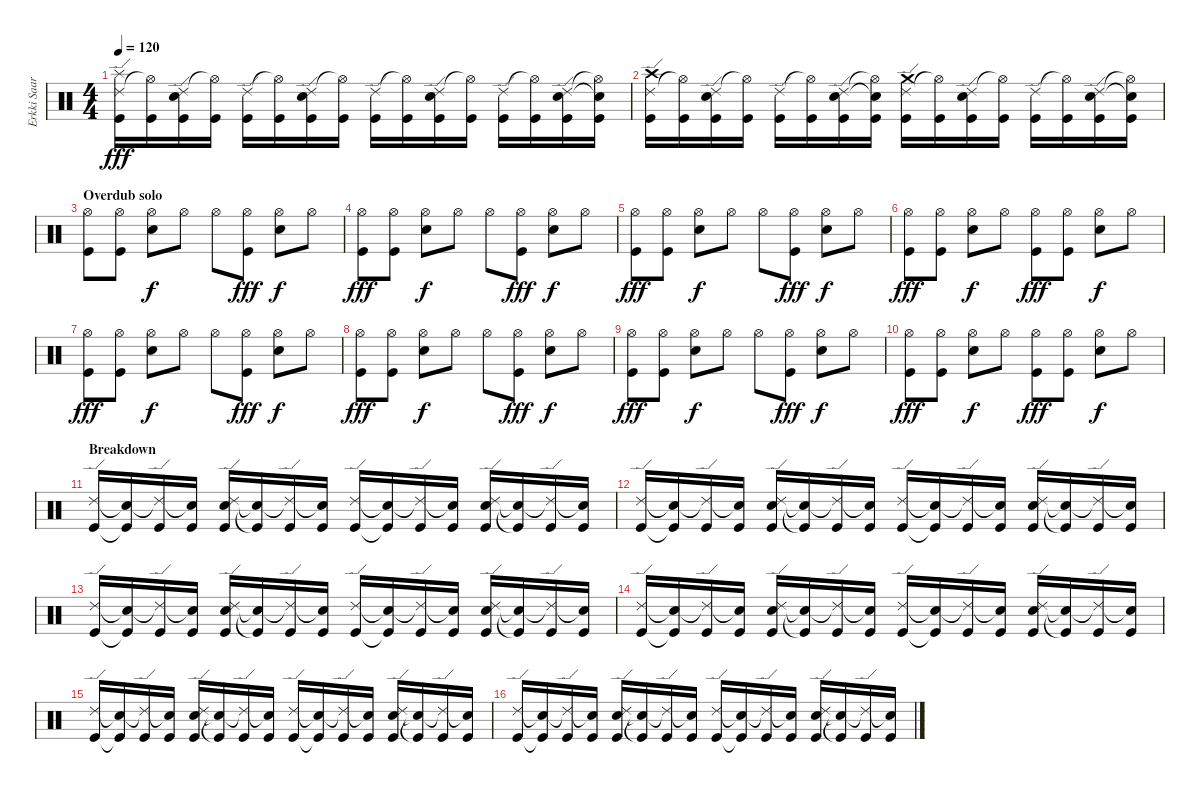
\track ("Erkki Saarinen" "Erkki Saar") {instrument percussion}
\staff {score}
\articulation defaults
\ts (4 4)
\tempo 120
\clef neutral
\ks c
("Ride (edge) 2" "Splash (hit)" "Kick (hit)").16{dy fff} ("Hi-Hat (open)"{t} "Kick (hit)").16 ("Ride (edge) 2" "Snare (hit) 2" "Kick (hit)").16 ("Hi-Hat (open)"{t} "Kick (hit)").16 ("Ride (edge) 2" "Kick (hit)").16 ("Hi-Hat (open)"{t} "Kick (hit)").16 ("Ride (edge) 2" "Snare (hit) 2" "Kick (hit)").16 ("Hi-Hat (open)"{t} "Kick (hit)").16 ("Ride (edge) 2" "Kick (hit)").16 ("Hi-Hat (open)"{t} "Kick (hit)").16 ("Ride (edge) 2" "Snare (hit) 2" "Kick (hit)").16 ("Hi-Hat (open)"{t} "Kick (hit)").16 ("Ride (edge) 2" "Kick (hit)").16 ("Hi-Hat (open)"{t} "Kick (hit)").16 ("Ride (edge) 2" "Snare (hit) 2" "Kick (hit)").16 ("Hi-Hat (open)"{t} "Snare (hit)"{t} "Kick (hit)").16 |
("Ride (edge) 2" "Crash high (hit)" "Kick (hit)").16 ("Hi-Hat (open)"{t} "Kick (hit)").16 ("Ride (edge) 2" "Snare (hit) 2" "Kick (hit)").16 ("Hi-Hat (open)"{t} "Kick (hit)").16 ("Ride (edge) 2" "Kick (hit)").16 ("Hi-Hat (open)"{t} "Kick (hit)").16 ("Ride (edge) 2" "Snare (hit) 2" "Kick (hit)").16 ("Hi-Hat (open)"{t} "Snare (hit)"{t} "Kick (hit)").16 ("Ride (edge) 2" "Crash medium (hit)" "Kick (hit)").16 ("Hi-Hat (open)"{t} "Kick (hit)").16 ("Ride (edge) 2" "Snare (hit) 2" "Kick (hit)").16 ("Hi-Hat (open)"{t} "Kick (hit)").16 ("Ride (edge) 2" "Kick (hit)").16 ("Hi-Hat (open)"{t} "Kick (hit)").16 ("Ride (edge) 2" "Snare (hit) 2" "Kick (hit)").16 ("Hi-Hat (open)"{t} "Snare (hit)"{t} "Kick (hit)").16 |
\section ("" "Overdub solo")
("Hi-Hat (open)" "Kick (hit)").8 ("Hi-Hat (open)" "Kick (hit)").8 ("Hi-Hat (open)" "Snare (hit) 2").8{dy f} "Hi-Hat (open)".8 "Hi-Hat (open)".8 ("Hi-Hat (open)" "Kick (hit)").8{dy fff} ("Hi-Hat (open)" "Snare (hit) 2").8{dy f} "Hi-Hat (open)".8 |
("Hi-Hat (open)" "Kick (hit)").8{dy fff} ("Hi-Hat (open)" "Kick (hit)").8 ("Hi-Hat (open)" "Snare (hit) 2").8{dy f} "Hi-Hat (open)".8 "Hi-Hat (open)".8 ("Hi-Hat (open)" "Kick (hit)").8{dy fff} ("Hi-Hat (open)" "Snare (hit) 2").8{dy f} "Hi-Hat (open)".8 |
("Hi-Hat (open)" "Kick (hit)").8{dy fff} ("Hi-Hat (open)" "Kick (hit)").8 ("Hi-Hat (open)" "Snare (hit) 2").8{dy f} "Hi-Hat (open)".8 "Hi-Hat (open)".8 ("Hi-Hat (open)" "Kick (hit)").8{dy fff} ("Hi-Hat (open)" "Snare (hit) 2").8{dy f} "Hi-Hat (open)".8 |
("Hi-Hat (open)" "Kick (hit)").8{dy fff} ("Hi-Hat (open)" "Kick (hit)").8 ("Hi-Hat (open)" "Snare (hit) 2").8{dy f} "Hi-Hat (open)".8 ("Hi-Hat (open)" "Kick (hit)").8{dy fff} ("Hi-Hat (open)" "Kick (hit)").8 ("Hi-Hat (open)" "Snare (hit) 2").8{dy f} "Hi-Hat (open)".8 |
("Hi-Hat (open)" "Kick (hit)").8{dy fff} ("Hi-Hat (open)" "Kick (hit)").8 ("Hi-Hat (open)" "Snare (hit) 2").8{dy f} "Hi-Hat (open)".8 "Hi-Hat (open)".8 ("Hi-Hat (open)" "Kick (hit)").8{dy fff} ("Hi-Hat (open)" "Snare (hit) 2").8{dy f} "Hi-Hat (open)".8 |
("Hi-Hat (open)" "Kick (hit)").8{dy fff} ("Hi-Hat (open)" "Kick (hit)").8 ("Hi-Hat (open)" "Snare (hit) 2").8{dy f} "Hi-Hat (open)".8 "Hi-Hat (open)".8 ("Hi-Hat (open)" "Kick (hit)").8{dy fff} ("Hi-Hat (open)" "Snare (hit) 2").8{dy f} "Hi-Hat (open)".8 |
("Hi-Hat (open)" "Kick (hit)").8{dy fff} ("Hi-Hat (open)" "Kick (hit)").8 ("Hi-Hat (open)" "Snare (hit) 2").8{dy f} "Hi-Hat (open)".8 "Hi-Hat (open)".8 ("Hi-Hat (open)" "Kick (hit)").8{dy fff} ("Hi-Hat (open)" "Snare (hit) 2").8{dy f} "Hi-Hat (open)".8 |
("Hi-Hat (open)" "Kick (hit)").8{dy fff} ("Hi-Hat (open)" "Kick (hit)").8 ("Hi-Hat (open)" "Snare (hit) 2").8{dy f} "Hi-Hat (open)".8 ("Hi-Hat (open)" "Kick (hit)").8{dy fff} ("Hi-Hat (open)" "Kick (hit)").8 ("Hi-Hat (open)" "Snare (hit) 2").8{dy f} "Hi-Hat (open)".8 |
\section ("" "Breakdown")
("Ride (edge) 2" "Kick (hit)").16 ("Snare (hit)"{t} "Kick (hit)"{t}).16 ("Ride (edge) 2"{t} "Kick (hit)").16 ("Snare (hit)"{t} "Kick (hit)").16 ("Ride (edge) 2" "Snare (hit) 2" "Kick (hit)").16 ("Snare (hit)"{t} "Kick (hit)"{t}).16 ("Ride (edge) 2"{t} "Kick (hit)").16 ("Snare (hit)"{t} "Kick (hit)").16 ("Ride (edge) 2" "Kick (hit)").16 ("Snare (hit)"{t} "Kick (hit)"{t}).16 ("Ride (edge) 2"{t} "Kick (hit)").16 ("Snare (hit)"{t} "Kick (hit)").16 ("Ride (edge) 2" "Snare (hit) 2" "Kick (hit)").16 ("Snare (hit)"{t} "Kick (hit)"{t}).16 ("Ride (edge) 2"{t} "Kick (hit)").16 ("Snare (hit)"{t} "Kick (hit)").16 |
("Ride (edge) 2" "Kick (hit)").16 ("Snare (hit)"{t} "Kick (hit)"{t}).16 ("Ride (edge) 2"{t} "Kick (hit)").16 ("Snare (hit)"{t} "Kick (hit)").16 ("Ride (edge) 2" "Snare (hit) 2" "Kick (hit)").16 ("Snare (hit)"{t} "Kick (hit)"{t}).16 ("Ride (edge) 2"{t} "Kick (hit)").16 ("Snare (hit)"{t} "Kick (hit)").16 ("Ride (edge) 2" "Kick (hit)").16 ("Snare (hit)"{t} "Kick (hit)"{t}).16 ("Ride (edge) 2"{t} "Kick (hit)").16 ("Snare (hit)"{t} "Kick (hit)").16 ("Ride (edge) 2" "Snare (hit) 2" "Kick (hit)").16 ("Snare (hit)"{t} "Kick (hit)"{t}).16 ("Ride (edge) 2"{t} "Kick (hit)").16 ("Snare (hit)"{t} "Kick (hit)").16 |
("Ride (edge) 2" "Kick (hit)").16 ("Snare (hit)"{t} "Kick (hit)"{t}).16 ("Ride (edge) 2"{t} "Kick (hit)").16 ("Snare (hit)"{t} "Kick (hit)").16 ("Ride (edge) 2" "Snare (hit) 2" "Kick (hit)").16 ("Snare (hit)"{t} "Kick (hit)"{t}).16 ("Ride (edge) 2"{t} "Kick (hit)").16 ("Snare (hit)"{t} "Kick (hit)").16 ("Ride (edge) 2" "Kick (hit)").16 ("Snare (hit)"{t} "Kick (hit)"{t}).16 ("Ride (edge) 2"{t} "Kick (hit)").16 ("Snare (hit)"{t} "Kick (hit)").16 ("Ride (edge) 2" "Snare (hit) 2" "Kick (hit)").16 ("Snare (hit)"{t} "Kick (hit)"{t}).16 ("Ride (edge) 2"{t} "Kick (hit)").16 ("Snare (hit)"{t} "Kick (hit)").16 |
("Ride (edge) 2" "Kick (hit)").16 ("Snare (hit)"{t} "Kick (hit)"{t}).16 ("Ride (edge) 2"{t} "Kick (hit)").16 ("Snare (hit)"{t} "Kick (hit)").16 ("Ride (edge) 2" "Snare (hit) 2" "Kick (hit)").16 ("Snare (hit)"{t} "Kick (hit)"{t}).16 ("Ride (edge) 2"{t} "Kick (hit)").16 ("Snare (hit)"{t} "Kick (hit)").16 ("Ride (edge) 2" "Kick (hit)").16 ("Snare (hit)"{t} "Kick (hit)"{t}).16 ("Ride (edge) 2"{t} "Kick (hit)").16 ("Snare (hit)"{t} "Kick (hit)").16 ("Ride (edge) 2" "Snare (hit) 2" "Kick (hit)").16 ("Snare (hit)"{t} "Kick (hit)"{t}).16 ("Ride (edge) 2"{t} "Kick (hit)").16 ("Snare (hit)"{t} "Kick (hit)").16 |
("Ride (edge) 2" "Kick (hit)").16 ("Snare (hit)"{t} "Kick (hit)"{t}).16 ("Ride (edge) 2"{t} "Kick (hit)").16 ("Snare (hit)"{t} "Kick (hit)").16 ("Ride (edge) 2" "Snare (hit) 2" "Kick (hit)").16 ("Snare (hit)"{t} "Kick (hit)"{t}).16 ("Ride (edge) 2"{t} "Kick (hit)").16 ("Snare (hit)"{t} "Kick (hit)").16 ("Ride (edge) 2" "Kick (hit)").16 ("Snare (hit)"{t} "Kick (hit)"{t}).16 ("Ride (edge) 2"{t} "Kick (hit)").16 ("Snare (hit)"{t} "Kick (hit)").16 ("Ride (edge) 2" "Snare (hit) 2" "Kick (hit)").16 ("Snare (hit)"{t} "Kick (hit)"{t}).16 ("Ride (edge) 2"{t} "Kick (hit)").16 ("Snare (hit)"{t} "Kick (hit)").16 |
("Ride (edge) 2" "Kick (hit)").16 ("Snare (hit)"{t} "Kick (hit)"{t}).16 ("Ride (edge) 2"{t} "Kick (hit)").16 ("Snare (hit)"{t} "Kick (hit)").16 ("Ride (edge) 2" "Snare (hit) 2" "Kick (hit)").16 ("Snare (hit)"{t} "Kick (hit)"{t}).16 ("Ride (edge) 2"{t} "Kick (hit)").16 ("Snare (hit)"{t} "Kick (hit)").16 ("Ride (edge) 2" "Kick (hit)").16 ("Snare (hit)"{t} "Kick (hit)"{t}).16 ("Ride (edge) 2"{t} "Kick (hit)").16 ("Snare (hit)"{t} "Kick (hit)").16 ("Ride (edge) 2" "Snare (hit) 2" "Kick (hit)").16 ("Snare (hit)"{t} "Kick (hit)"{t}).16 ("Ride (edge) 2"{t} "Kick (hit)").16 ("Snare (hit)"{t} "Kick (hit)").16
